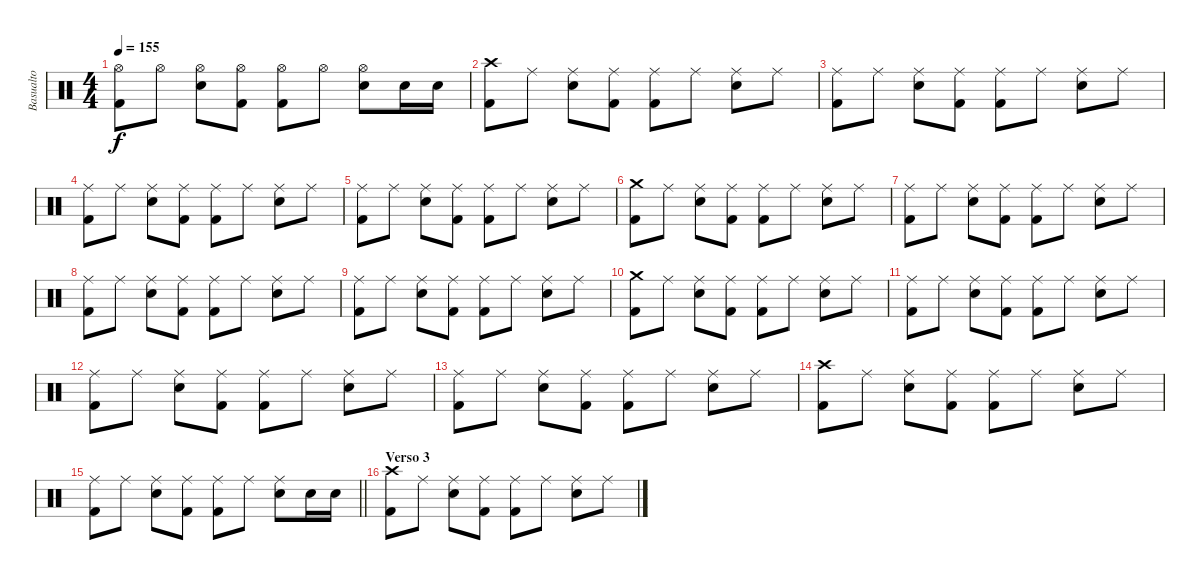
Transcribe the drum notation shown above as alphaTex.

\track ("Basualto" "Basualto") {instrument percussion}
\staff {score}
\articulation defaults
\ts (4 4)
\tempo 155
\clef neutral
\ks c
("Hi-Hat (open)" "Kick (hit) 2").8{dy f} "Hi-Hat (open)".8 ("Hi-Hat (open)" "Electric Snare (hit)").8 ("Hi-Hat (open)" "Kick (hit) 2").8 ("Hi-Hat (open)" "Kick (hit) 2").8 "Hi-Hat (open)".8 ("Hi-Hat (open)" "Electric Snare (hit)").8 "Electric Snare (hit)".16 "Electric Snare (hit)".16 |
("Crash high (hit)" "Kick (hit) 2").8 "Ride (middle)".8 ("Ride (middle)" "Electric Snare (hit)").8 ("Ride (middle)" "Kick (hit) 2").8 ("Ride (middle)" "Kick (hit) 2").8 "Ride (middle)".8 ("Ride (middle)" "Electric Snare (hit)").8 "Ride (middle)".8 |
("Ride (middle)" "Kick (hit) 2").8 "Ride (middle)".8 ("Ride (middle)" "Electric Snare (hit)").8 ("Ride (middle)" "Kick (hit) 2").8 ("Ride (middle)" "Kick (hit) 2").8 "Ride (middle)".8 ("Ride (middle)" "Electric Snare (hit)").8 "Ride (middle)".8 |
("Ride (middle)" "Kick (hit) 2").8 "Ride (middle)".8 ("Ride (middle)" "Electric Snare (hit)").8 ("Ride (middle)" "Kick (hit) 2").8 ("Ride (middle)" "Kick (hit) 2").8 "Ride (middle)".8 ("Ride (middle)" "Electric Snare (hit)").8 "Ride (middle)".8 |
("Ride (middle)" "Kick (hit) 2").8 "Ride (middle)".8 ("Ride (middle)" "Electric Snare (hit)").8 ("Ride (middle)" "Kick (hit) 2").8 ("Ride (middle)" "Kick (hit) 2").8 "Ride (middle)".8 ("Ride (middle)" "Electric Snare (hit)").8 "Ride (middle)".8 |
("Crash medium (hit)" "Kick (hit) 2").8 "Ride (middle)".8 ("Ride (middle)" "Electric Snare (hit)").8 ("Ride (middle)" "Kick (hit) 2").8 ("Ride (middle)" "Kick (hit) 2").8 "Ride (middle)".8 ("Ride (middle)" "Electric Snare (hit)").8 "Ride (middle)".8 |
("Ride (middle)" "Kick (hit) 2").8 "Ride (middle)".8 ("Ride (middle)" "Electric Snare (hit)").8 ("Ride (middle)" "Kick (hit) 2").8 ("Ride (middle)" "Kick (hit) 2").8 "Ride (middle)".8 ("Ride (middle)" "Electric Snare (hit)").8 "Ride (middle)".8 |
("Ride (middle)" "Kick (hit) 2").8 "Ride (middle)".8 ("Ride (middle)" "Electric Snare (hit)").8 ("Ride (middle)" "Kick (hit) 2").8 ("Ride (middle)" "Kick (hit) 2").8 "Ride (middle)".8 ("Ride (middle)" "Electric Snare (hit)").8 "Ride (middle)".8 |
("Ride (middle)" "Kick (hit) 2").8 "Ride (middle)".8 ("Ride (middle)" "Electric Snare (hit)").8 ("Ride (middle)" "Kick (hit) 2").8 ("Ride (middle)" "Kick (hit) 2").8 "Ride (middle)".8 ("Ride (middle)" "Electric Snare (hit)").8 "Ride (middle)".8 |
("Crash medium (hit)" "Kick (hit) 2").8 "Ride (middle)".8 ("Ride (middle)" "Electric Snare (hit)").8 ("Ride (middle)" "Kick (hit) 2").8 ("Ride (middle)" "Kick (hit) 2").8 "Ride (middle)".8 ("Ride (middle)" "Electric Snare (hit)").8 "Ride (middle)".8 |
("Ride (middle)" "Kick (hit) 2").8 "Ride (middle)".8 ("Ride (middle)" "Electric Snare (hit)").8 ("Ride (middle)" "Kick (hit) 2").8 ("Ride (middle)" "Kick (hit) 2").8 "Ride (middle)".8 ("Ride (middle)" "Electric Snare (hit)").8 "Ride (middle)".8 |
("Ride (middle)" "Kick (hit) 2").8 "Ride (middle)".8 ("Ride (middle)" "Electric Snare (hit)").8 ("Ride (middle)" "Kick (hit) 2").8 ("Ride (middle)" "Kick (hit) 2").8 "Ride (middle)".8 ("Ride (middle)" "Electric Snare (hit)").8 "Ride (middle)".8 |
("Ride (middle)" "Kick (hit) 2").8 "Ride (middle)".8 ("Ride (middle)" "Electric Snare (hit)").8 ("Ride (middle)" "Kick (hit) 2").8 ("Ride (middle)" "Kick (hit) 2").8 "Ride (middle)".8 ("Ride (middle)" "Electric Snare (hit)").8 "Ride (middle)".8 |
("Crash high (hit)" "Kick (hit) 2").8 "Ride (middle)".8 ("Ride (middle)" "Electric Snare (hit)").8 ("Ride (middle)" "Kick (hit) 2").8 ("Ride (middle)" "Kick (hit) 2").8 "Ride (middle)".8 ("Ride (middle)" "Electric Snare (hit)").8 "Ride (middle)".8 |
\barLineRight lightlight
("Ride (middle)" "Kick (hit) 2").8 "Ride (middle)".8 ("Ride (middle)" "Electric Snare (hit)").8 ("Ride (middle)" "Kick (hit) 2").8 ("Ride (middle)" "Kick (hit) 2").8 "Ride (middle)".8 ("Ride (middle)" "Electric Snare (hit)").8 "Electric Snare (hit)".16 "Electric Snare (hit)".16 |
\section ("" "Verso 3")
("Crash high (hit)" "Kick (hit) 2").8 "Ride (middle)".8 ("Ride (middle)" "Electric Snare (hit)").8 ("Ride (middle)" "Kick (hit) 2").8 ("Ride (middle)" "Kick (hit) 2").8 "Ride (middle)".8 ("Ride (middle)" "Electric Snare (hit)").8 "Ride (middle)".8
